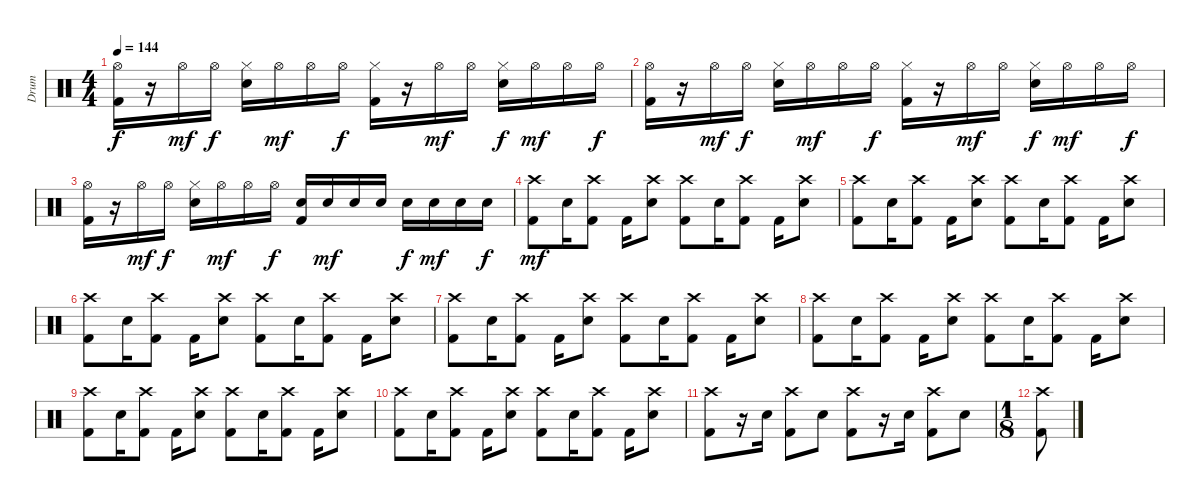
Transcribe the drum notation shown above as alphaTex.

\track ("Drum" "Drum") {instrument percussion}
\staff {score}
\articulation defaults
\ts (4 4)
\tempo 144
\clef neutral
\ks c
("Kick (hit) 2" "Hi-Hat (open)").16{dy f} r.16 "Hi-Hat (open)".16{dy mf} "Hi-Hat (open)".16{dy f} ("Snare (hit) 2" "Hi-Hat (closed)").16 "Hi-Hat (open)".16{dy mf} "Hi-Hat (open)".16 "Hi-Hat (open)".16{dy f} ("Kick (hit) 2" "Hi-Hat (closed)").16 r.16 "Hi-Hat (open)".16{dy mf} "Hi-Hat (open)".16 ("Snare (hit) 2" "Hi-Hat (closed)").16{dy f} "Hi-Hat (open)".16{dy mf} "Hi-Hat (open)".16 "Hi-Hat (open)".16{dy f} |
("Kick (hit) 2" "Hi-Hat (open)").16 r.16 "Hi-Hat (open)".16{dy mf} "Hi-Hat (open)".16{dy f} ("Snare (hit) 2" "Hi-Hat (closed)").16 "Hi-Hat (open)".16{dy mf} "Hi-Hat (open)".16 "Hi-Hat (open)".16{dy f} ("Kick (hit) 2" "Hi-Hat (closed)").16 r.16 "Hi-Hat (open)".16{dy mf} "Hi-Hat (open)".16 ("Snare (hit) 2" "Hi-Hat (closed)").16{dy f} "Hi-Hat (open)".16{dy mf} "Hi-Hat (open)".16 "Hi-Hat (open)".16{dy f} |
("Kick (hit) 2" "Hi-Hat (open)").16 r.16 "Hi-Hat (open)".16{dy mf} "Hi-Hat (open)".16{dy f} ("Snare (hit) 2" "Hi-Hat (closed)").16 "Hi-Hat (open)".16{dy mf} "Hi-Hat (open)".16 "Hi-Hat (open)".16{dy f} ("Kick (hit) 2" "Snare (hit) 2").16 "Snare (hit) 2".16{dy mf} "Snare (hit) 2".16 "Snare (hit) 2".16 "Snare (hit) 2".16{dy f} "Snare (hit) 2".16{dy mf} "Snare (hit) 2".16 "Snare (hit) 2".16{dy f} |
("Crash high (hit)" "Kick (hit) 2").8{dy mf} "Snare (hit) 2".16 ("Crash high (hit)" "Kick (hit) 2").8 "Kick (hit) 2".16 ("Crash high (hit)" "Snare (hit) 2").8 ("Crash high (hit)" "Kick (hit) 2").8 "Snare (hit) 2".16 ("Crash high (hit)" "Kick (hit) 2").8 "Kick (hit) 2".16 ("Crash high (hit)" "Snare (hit) 2").8 |
("Crash high (hit)" "Kick (hit) 2").8 "Snare (hit) 2".16 ("Crash high (hit)" "Kick (hit) 2").8 "Kick (hit) 2".16 ("Crash high (hit)" "Snare (hit) 2").8 ("Crash high (hit)" "Kick (hit) 2").8 "Snare (hit) 2".16 ("Crash high (hit)" "Kick (hit) 2").8 "Kick (hit) 2".16 ("Crash high (hit)" "Snare (hit) 2").8 |
("Crash high (hit)" "Kick (hit) 2").8 "Snare (hit) 2".16 ("Crash high (hit)" "Kick (hit) 2").8 "Kick (hit) 2".16 ("Crash high (hit)" "Snare (hit) 2").8 ("Crash high (hit)" "Kick (hit) 2").8 "Snare (hit) 2".16 ("Crash high (hit)" "Kick (hit) 2").8 "Kick (hit) 2".16 ("Crash high (hit)" "Snare (hit) 2").8 |
("Crash high (hit)" "Kick (hit) 2").8 "Snare (hit) 2".16 ("Crash high (hit)" "Kick (hit) 2").8 "Kick (hit) 2".16 ("Crash high (hit)" "Snare (hit) 2").8 ("Crash high (hit)" "Kick (hit) 2").8 "Snare (hit) 2".16 ("Crash high (hit)" "Kick (hit) 2").8 "Kick (hit) 2".16 ("Crash high (hit)" "Snare (hit) 2").8 |
("Crash high (hit)" "Kick (hit) 2").8 "Snare (hit) 2".16 ("Crash high (hit)" "Kick (hit) 2").8 "Kick (hit) 2".16 ("Crash high (hit)" "Snare (hit) 2").8 ("Crash high (hit)" "Kick (hit) 2").8 "Snare (hit) 2".16 ("Crash high (hit)" "Kick (hit) 2").8 "Kick (hit) 2".16 ("Crash high (hit)" "Snare (hit) 2").8 |
("Crash high (hit)" "Kick (hit) 2").8 "Snare (hit) 2".16 ("Crash high (hit)" "Kick (hit) 2").8 "Kick (hit) 2".16 ("Crash high (hit)" "Snare (hit) 2").8 ("Crash high (hit)" "Kick (hit) 2").8 "Snare (hit) 2".16 ("Crash high (hit)" "Kick (hit) 2").8 "Kick (hit) 2".16 ("Crash high (hit)" "Snare (hit) 2").8 |
("Crash high (hit)" "Kick (hit) 2").8 "Snare (hit) 2".16 ("Crash high (hit)" "Kick (hit) 2").8 "Kick (hit) 2".16 ("Crash high (hit)" "Snare (hit) 2").8 ("Crash high (hit)" "Kick (hit) 2").8 "Snare (hit) 2".16 ("Crash high (hit)" "Kick (hit) 2").8 "Kick (hit) 2".16 ("Crash high (hit)" "Snare (hit) 2").8 |
("Crash high (hit)" "Kick (hit) 2").8 r.16 "Snare (hit) 2".16 ("Crash high (hit)" "Kick (hit) 2").8 "Snare (hit) 2".8 ("Crash high (hit)" "Kick (hit) 2").8 r.16 "Snare (hit) 2".16 ("Crash high (hit)" "Kick (hit) 2").8 "Snare (hit) 2".8 |
\ts (1 8)
("Crash high (hit)" "Kick (hit) 2").8
